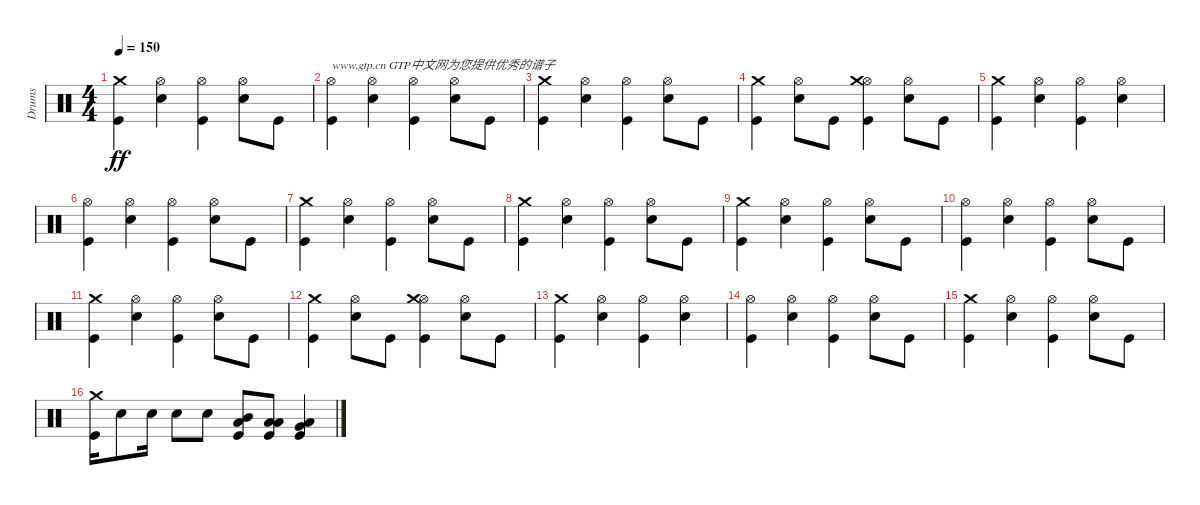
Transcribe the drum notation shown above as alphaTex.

\track ("Drums" "Drums") {instrument percussion}
\staff {score}
\articulation defaults
\ts (4 4)
\tempo 150
\clef neutral
\ks c
("Kick (hit)" "Crash medium (hit)").4{dy ff} ("Electric Snare (hit)" "Hi-Hat (open)").4 ("Kick (hit)" "Hi-Hat (open)").4 ("Electric Snare (hit)" "Hi-Hat (open)").8 "Kick (hit)".8 |
("Kick (hit)" "Hi-Hat (open)").4{txt "www.gtp.cn GTP中文网为您提供优秀的谱子"} ("Electric Snare (hit)" "Hi-Hat (open)").4 ("Kick (hit)" "Hi-Hat (open)").4 ("Electric Snare (hit)" "Hi-Hat (open)").8 "Kick (hit)".8 |
("Kick (hit)" "Crash medium (hit)").4 ("Electric Snare (hit)" "Hi-Hat (open)").4 ("Kick (hit)" "Hi-Hat (open)").4 ("Electric Snare (hit)" "Hi-Hat (open)").8 "Kick (hit)".8 |
("Kick (hit)" "Crash medium (hit)").4 ("Electric Snare (hit)" "Hi-Hat (open)").8 "Kick (hit)".8 ("Kick (hit)" "Hi-Hat (open)" "Crash medium (hit)").4 ("Electric Snare (hit)" "Hi-Hat (open)").8 "Kick (hit)".8 |
("Kick (hit)" "Crash medium (hit)").4 ("Electric Snare (hit)" "Hi-Hat (open)").4 ("Kick (hit)" "Hi-Hat (open)").4 ("Electric Snare (hit)" "Hi-Hat (open)").4 |
("Kick (hit)" "Hi-Hat (open)").4 ("Electric Snare (hit)" "Hi-Hat (open)").4 ("Kick (hit)" "Hi-Hat (open)").4 ("Electric Snare (hit)" "Hi-Hat (open)").8 "Kick (hit)".8 |
("Kick (hit)" "Crash medium (hit)").4 ("Electric Snare (hit)" "Hi-Hat (open)").4 ("Kick (hit)" "Hi-Hat (open)").4 ("Electric Snare (hit)" "Hi-Hat (open)").8 "Kick (hit)".8 |
("Kick (hit)" "Crash medium (hit)").4 ("Electric Snare (hit)" "Hi-Hat (open)").4 ("Kick (hit)" "Hi-Hat (open)").4 ("Electric Snare (hit)" "Hi-Hat (open)").8 "Kick (hit)".8 |
("Kick (hit)" "Crash medium (hit)").4 ("Electric Snare (hit)" "Hi-Hat (open)").4 ("Kick (hit)" "Hi-Hat (open)").4 ("Electric Snare (hit)" "Hi-Hat (open)").8 "Kick (hit)".8 |
("Kick (hit)" "Hi-Hat (open)").4 ("Electric Snare (hit)" "Hi-Hat (open)").4 ("Kick (hit)" "Hi-Hat (open)").4 ("Electric Snare (hit)" "Hi-Hat (open)").8 "Kick (hit)".8 |
("Kick (hit)" "Crash medium (hit)").4 ("Electric Snare (hit)" "Hi-Hat (open)").4 ("Kick (hit)" "Hi-Hat (open)").4 ("Electric Snare (hit)" "Hi-Hat (open)").8 "Kick (hit)".8 |
("Kick (hit)" "Crash medium (hit)").4 ("Electric Snare (hit)" "Hi-Hat (open)").8 "Kick (hit)".8 ("Kick (hit)" "Hi-Hat (open)" "Crash medium (hit)").4 ("Electric Snare (hit)" "Hi-Hat (open)").8 "Kick (hit)".8 |
("Kick (hit)" "Crash medium (hit)").4 ("Electric Snare (hit)" "Hi-Hat (open)").4 ("Kick (hit)" "Hi-Hat (open)").4 ("Electric Snare (hit)" "Hi-Hat (open)").4 |
("Kick (hit)" "Hi-Hat (open)").4 ("Electric Snare (hit)" "Hi-Hat (open)").4 ("Kick (hit)" "Hi-Hat (open)").4 ("Electric Snare (hit)" "Hi-Hat (open)").8 "Kick (hit)".8 |
("Kick (hit)" "Crash medium (hit)").4 ("Electric Snare (hit)" "Hi-Hat (open)").4 ("Kick (hit)" "Hi-Hat (open)").4 ("Electric Snare (hit)" "Hi-Hat (open)").8 "Kick (hit)".8 |
("Kick (hit)" "Crash medium (hit)").16 "Electric Snare (hit)".8 "Electric Snare (hit)".16 "Electric Snare (hit)".8 "Electric Snare (hit)".8 ("Kick (hit)" "Low Floor Tom (hit)" "Mid Tom (hit)").8 ("Kick (hit)" "Low Floor Tom (hit)" "Low Tom (hit)").8 ("Kick (hit)" "Low Floor Tom (hit)" "Very Low Tom (hit)").4
